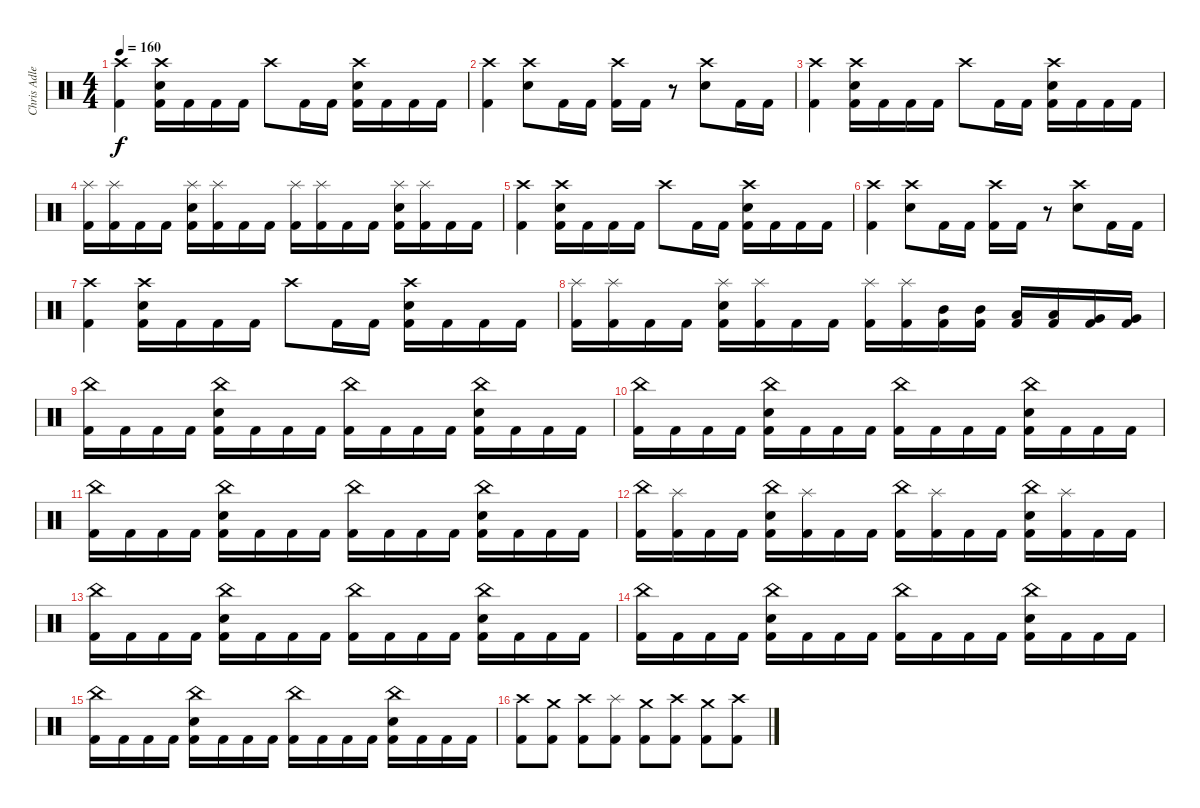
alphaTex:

\track ("Chris Adler" "Chris Adle") {instrument percussion}
\staff {score}
\articulation defaults
\ts (4 4)
\tempo 160
\clef neutral
\ks c
("Crash high (hit)" "Kick (hit) 2").4{dy f} ("Crash high (hit)" "Electric Snare (hit)" "Kick (hit) 2").16 "Kick (hit) 2".16 "Kick (hit) 2".16 "Kick (hit) 2".16 "Crash high (hit)".8 "Kick (hit) 2".16 "Kick (hit) 2".16 ("Crash high (hit)" "Electric Snare (hit)" "Kick (hit) 2").16 "Kick (hit) 2".16 "Kick (hit) 2".16 "Kick (hit) 2".16 |
("Crash high (hit)" "Kick (hit) 2").4 ("Crash high (hit)" "Electric Snare (hit)").8 "Kick (hit) 2".16 "Kick (hit) 2".16 ("Crash high (hit)" "Kick (hit) 2").16 "Kick (hit) 2".16 r.8 ("Crash high (hit)" "Electric Snare (hit)").8 "Kick (hit) 2".16 "Kick (hit) 2".16 |
("Crash high (hit)" "Kick (hit) 2").4 ("Crash high (hit)" "Electric Snare (hit)" "Kick (hit) 2").16 "Kick (hit) 2".16 "Kick (hit) 2".16 "Kick (hit) 2".16 "Crash high (hit)".8 "Kick (hit) 2".16 "Kick (hit) 2".16 ("Crash high (hit)" "Electric Snare (hit)" "Kick (hit) 2").16 "Kick (hit) 2".16 "Kick (hit) 2".16 "Kick (hit) 2".16 |
("Splash (hit)" "Kick (hit) 2").16 ("Splash (hit)" "Kick (hit) 2").16 "Kick (hit) 2".16 "Kick (hit) 2".16 ("Splash (hit)" "Electric Snare (hit)" "Kick (hit) 2").16 ("Splash (hit)" "Kick (hit) 2").16 "Kick (hit) 2".16 "Kick (hit) 2".16 ("Splash (hit)" "Kick (hit) 2").16 ("Splash (hit)" "Kick (hit) 2").16 "Kick (hit) 2".16 "Kick (hit) 2".16 ("Splash (hit)" "Electric Snare (hit)" "Kick (hit) 2").16 ("Splash (hit)" "Kick (hit) 2").16 "Kick (hit) 2".16 "Kick (hit) 2".16 |
("Crash high (hit)" "Kick (hit) 2").4 ("Crash high (hit)" "Electric Snare (hit)" "Kick (hit) 2").16 "Kick (hit) 2".16 "Kick (hit) 2".16 "Kick (hit) 2".16 "Crash high (hit)".8 "Kick (hit) 2".16 "Kick (hit) 2".16 ("Crash high (hit)" "Electric Snare (hit)" "Kick (hit) 2").16 "Kick (hit) 2".16 "Kick (hit) 2".16 "Kick (hit) 2".16 |
("Crash high (hit)" "Kick (hit) 2").4 ("Crash high (hit)" "Electric Snare (hit)").8 "Kick (hit) 2".16 "Kick (hit) 2".16 ("Crash high (hit)" "Kick (hit) 2").16 "Kick (hit) 2".16 r.8 ("Crash high (hit)" "Electric Snare (hit)").8 "Kick (hit) 2".16 "Kick (hit) 2".16 |
("Crash high (hit)" "Kick (hit) 2").4 ("Crash high (hit)" "Electric Snare (hit)" "Kick (hit) 2").16 "Kick (hit) 2".16 "Kick (hit) 2".16 "Kick (hit) 2".16 "Crash high (hit)".8 "Kick (hit) 2".16 "Kick (hit) 2".16 ("Crash high (hit)" "Electric Snare (hit)" "Kick (hit) 2").16 "Kick (hit) 2".16 "Kick (hit) 2".16 "Kick (hit) 2".16 |
("Splash (hit)" "Kick (hit) 2").16 ("Splash (hit)" "Kick (hit) 2").16 "Kick (hit) 2".16 "Kick (hit) 2".16 ("Splash (hit)" "Electric Snare (hit)" "Kick (hit) 2").16 ("Splash (hit)" "Kick (hit) 2").16 "Kick (hit) 2".16 "Kick (hit) 2".16 ("Splash (hit)" "Kick (hit) 2").16 ("Splash (hit)" "Kick (hit) 2").16 ("Mid Tom (hit)" "Kick (hit) 2").16 ("Mid Tom (hit)" "Kick (hit) 2").16 ("Low Tom (hit)" "Kick (hit) 2").16 ("Low Tom (hit)" "Kick (hit) 2").16 ("Very Low Tom (hit)" "Kick (hit) 2").16 ("Very Low Tom (hit)" "Kick (hit) 2").16 |
("China (hit)" "Kick (hit) 2").16 "Kick (hit) 2".16 "Kick (hit) 2".16 "Kick (hit) 2".16 ("China (hit)" "Electric Snare (hit)" "Kick (hit) 2").16 "Kick (hit) 2".16 "Kick (hit) 2".16 "Kick (hit) 2".16 ("China (hit)" "Kick (hit) 2").16 "Kick (hit) 2".16 "Kick (hit) 2".16 "Kick (hit) 2".16 ("China (hit)" "Electric Snare (hit)" "Kick (hit) 2").16 "Kick (hit) 2".16 "Kick (hit) 2".16 "Kick (hit) 2".16 |
("China (hit)" "Kick (hit) 2").16 "Kick (hit) 2".16 "Kick (hit) 2".16 "Kick (hit) 2".16 ("China (hit)" "Electric Snare (hit)" "Kick (hit) 2").16 "Kick (hit) 2".16 "Kick (hit) 2".16 "Kick (hit) 2".16 ("China (hit)" "Kick (hit) 2").16 "Kick (hit) 2".16 "Kick (hit) 2".16 "Kick (hit) 2".16 ("China (hit)" "Electric Snare (hit)" "Kick (hit) 2").16 "Kick (hit) 2".16 "Kick (hit) 2".16 "Kick (hit) 2".16 |
("China (hit)" "Kick (hit) 2").16 "Kick (hit) 2".16 "Kick (hit) 2".16 "Kick (hit) 2".16 ("China (hit)" "Electric Snare (hit)" "Kick (hit) 2").16 "Kick (hit) 2".16 "Kick (hit) 2".16 "Kick (hit) 2".16 ("China (hit)" "Kick (hit) 2").16 "Kick (hit) 2".16 "Kick (hit) 2".16 "Kick (hit) 2".16 ("China (hit)" "Electric Snare (hit)" "Kick (hit) 2").16 "Kick (hit) 2".16 "Kick (hit) 2".16 "Kick (hit) 2".16 |
("China (hit)" "Kick (hit) 2").16 ("Splash (hit)" "Kick (hit) 2").16 "Kick (hit) 2".16 "Kick (hit) 2".16 ("China (hit)" "Electric Snare (hit)" "Kick (hit) 2").16 ("Splash (hit)" "Kick (hit) 2").16 "Kick (hit) 2".16 "Kick (hit) 2".16 ("China (hit)" "Kick (hit) 2").16 ("Splash (hit)" "Kick (hit) 2").16 "Kick (hit) 2".16 "Kick (hit) 2".16 ("China (hit)" "Electric Snare (hit)" "Kick (hit) 2").16 ("Splash (hit)" "Kick (hit) 2").16 "Kick (hit) 2".16 "Kick (hit) 2".16 |
("China (hit)" "Kick (hit) 2").16 "Kick (hit) 2".16 "Kick (hit) 2".16 "Kick (hit) 2".16 ("China (hit)" "Electric Snare (hit)" "Kick (hit) 2").16 "Kick (hit) 2".16 "Kick (hit) 2".16 "Kick (hit) 2".16 ("China (hit)" "Kick (hit) 2").16 "Kick (hit) 2".16 "Kick (hit) 2".16 "Kick (hit) 2".16 ("China (hit)" "Electric Snare (hit)" "Kick (hit) 2").16 "Kick (hit) 2".16 "Kick (hit) 2".16 "Kick (hit) 2".16 |
("China (hit)" "Kick (hit) 2").16 "Kick (hit) 2".16 "Kick (hit) 2".16 "Kick (hit) 2".16 ("China (hit)" "Electric Snare (hit)" "Kick (hit) 2").16 "Kick (hit) 2".16 "Kick (hit) 2".16 "Kick (hit) 2".16 ("China (hit)" "Kick (hit) 2").16 "Kick (hit) 2".16 "Kick (hit) 2".16 "Kick (hit) 2".16 ("China (hit)" "Electric Snare (hit)" "Kick (hit) 2").16 "Kick (hit) 2".16 "Kick (hit) 2".16 "Kick (hit) 2".16 |
("China (hit)" "Kick (hit) 2").16 "Kick (hit) 2".16 "Kick (hit) 2".16 "Kick (hit) 2".16 ("China (hit)" "Electric Snare (hit)" "Kick (hit) 2").16 "Kick (hit) 2".16 "Kick (hit) 2".16 "Kick (hit) 2".16 ("China (hit)" "Kick (hit) 2").16 "Kick (hit) 2".16 "Kick (hit) 2".16 "Kick (hit) 2".16 ("China (hit)" "Electric Snare (hit)" "Kick (hit) 2").16 "Kick (hit) 2".16 "Kick (hit) 2".16 "Kick (hit) 2".16 |
("Crash high (hit)" "Kick (hit) 2").8 ("Crash medium (hit)" "Kick (hit) 2").8 ("Crash high (hit)" "Kick (hit) 2").8 ("Splash (hit)" "Kick (hit) 2").8 ("Crash medium (hit)" "Kick (hit) 2").8 ("Crash high (hit)" "Kick (hit) 2").8 ("Crash medium (hit)" "Kick (hit) 2").8 ("Crash high (hit)" "Kick (hit) 2").8
